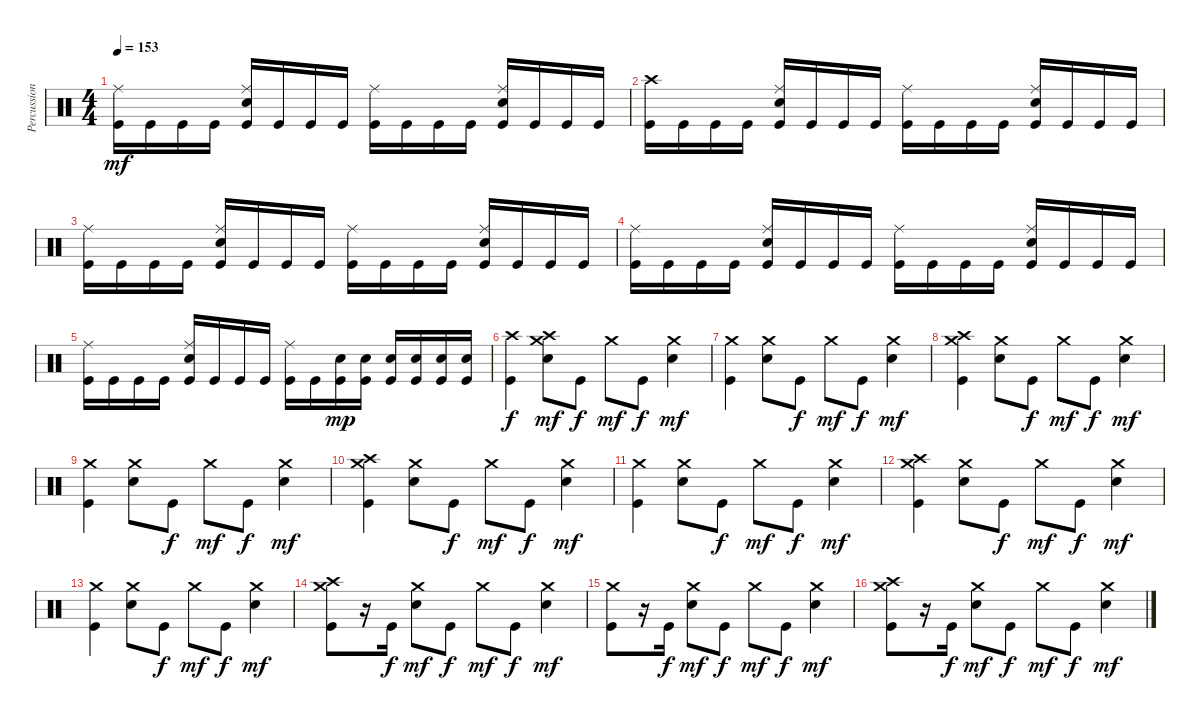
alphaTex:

\track ("Percussions" "Percussion") {instrument percussion}
\staff {score}
\articulation defaults
\ts (4 4)
\tempo 153
\clef neutral
\ks c
("Kick (hit)" "Ride (middle)").16{dy mf} "Kick (hit)".16 "Kick (hit)".16 "Kick (hit)".16 ("Kick (hit)" "Electric Snare (hit)" "Ride (middle)").16 "Kick (hit)".16 "Kick (hit)".16 "Kick (hit)".16 ("Kick (hit)" "Ride (middle)").16 "Kick (hit)".16 "Kick (hit)".16 "Kick (hit)".16 ("Kick (hit)" "Electric Snare (hit)" "Ride (middle)").16 "Kick (hit)".16 "Kick (hit)".16 "Kick (hit)".16 |
("Kick (hit)" "Crash high (hit)").16 "Kick (hit)".16 "Kick (hit)".16 "Kick (hit)".16 ("Kick (hit)" "Electric Snare (hit)" "Ride (middle)").16 "Kick (hit)".16 "Kick (hit)".16 "Kick (hit)".16 ("Kick (hit)" "Ride (middle)").16 "Kick (hit)".16 "Kick (hit)".16 "Kick (hit)".16 ("Kick (hit)" "Electric Snare (hit)" "Ride (middle)").16 "Kick (hit)".16 "Kick (hit)".16 "Kick (hit)".16 |
("Kick (hit)" "Ride (middle)").16 "Kick (hit)".16 "Kick (hit)".16 "Kick (hit)".16 ("Kick (hit)" "Electric Snare (hit)" "Ride (middle)").16 "Kick (hit)".16 "Kick (hit)".16 "Kick (hit)".16 ("Kick (hit)" "Ride (middle)").16 "Kick (hit)".16 "Kick (hit)".16 "Kick (hit)".16 ("Kick (hit)" "Electric Snare (hit)" "Ride (middle)").16 "Kick (hit)".16 "Kick (hit)".16 "Kick (hit)".16 |
("Kick (hit)" "Ride (middle)").16 "Kick (hit)".16 "Kick (hit)".16 "Kick (hit)".16 ("Kick (hit)" "Electric Snare (hit)" "Ride (middle)").16 "Kick (hit)".16 "Kick (hit)".16 "Kick (hit)".16 ("Kick (hit)" "Ride (middle)").16 "Kick (hit)".16 "Kick (hit)".16 "Kick (hit)".16 ("Kick (hit)" "Electric Snare (hit)" "Ride (middle)").16 "Kick (hit)".16 "Kick (hit)".16 "Kick (hit)".16 |
("Kick (hit)" "Ride (middle)").16 "Kick (hit)".16 "Kick (hit)".16 "Kick (hit)".16 ("Kick (hit)" "Electric Snare (hit)" "Ride (middle)").16 "Kick (hit)".16 "Kick (hit)".16 "Kick (hit)".16 ("Kick (hit)" "Ride (middle)").16 "Kick (hit)".16 ("Kick (hit)" "Electric Snare (hit)").16{dy mp} ("Kick (hit)" "Electric Snare (hit)").16 ("Kick (hit)" "Electric Snare (hit)").16 ("Kick (hit)" "Electric Snare (hit)").16 ("Kick (hit)" "Electric Snare (hit)").16 ("Kick (hit)" "Electric Snare (hit)").16 |
("Kick (hit)" "Crash high (hit)").4{dy f} ("Electric Snare (hit)" "Crash medium (hit)" "Crash high (hit)").8{dy mf} "Kick (hit)".8{dy f} "Crash medium (hit)".8{dy mf} "Kick (hit)".8{dy f} ("Electric Snare (hit)" "Crash medium (hit)").4{dy mf} |
("Kick (hit)" "Crash medium (hit)").4 ("Electric Snare (hit)" "Crash medium (hit)").8 "Kick (hit)".8{dy f} "Crash medium (hit)".8{dy mf} "Kick (hit)".8{dy f} ("Electric Snare (hit)" "Crash medium (hit)").4{dy mf} |
("Kick (hit)" "Crash medium (hit)" "Crash high (hit)").4 ("Electric Snare (hit)" "Crash medium (hit)").8 "Kick (hit)".8{dy f} "Crash medium (hit)".8{dy mf} "Kick (hit)".8{dy f} ("Electric Snare (hit)" "Crash medium (hit)").4{dy mf} |
("Kick (hit)" "Crash medium (hit)").4 ("Electric Snare (hit)" "Crash medium (hit)").8 "Kick (hit)".8{dy f} "Crash medium (hit)".8{dy mf} "Kick (hit)".8{dy f} ("Electric Snare (hit)" "Crash medium (hit)").4{dy mf} |
("Kick (hit)" "Crash medium (hit)" "Crash high (hit)").4 ("Electric Snare (hit)" "Crash medium (hit)").8 "Kick (hit)".8{dy f} "Crash medium (hit)".8{dy mf} "Kick (hit)".8{dy f} ("Electric Snare (hit)" "Crash medium (hit)").4{dy mf} |
("Kick (hit)" "Crash medium (hit)").4 ("Electric Snare (hit)" "Crash medium (hit)").8 "Kick (hit)".8{dy f} "Crash medium (hit)".8{dy mf} "Kick (hit)".8{dy f} ("Electric Snare (hit)" "Crash medium (hit)").4{dy mf} |
("Kick (hit)" "Crash medium (hit)" "Crash high (hit)").4 ("Electric Snare (hit)" "Crash medium (hit)").8 "Kick (hit)".8{dy f} "Crash medium (hit)".8{dy mf} "Kick (hit)".8{dy f} ("Electric Snare (hit)" "Crash medium (hit)").4{dy mf} |
("Kick (hit)" "Crash medium (hit)").4 ("Electric Snare (hit)" "Crash medium (hit)").8 "Kick (hit)".8{dy f} "Crash medium (hit)".8{dy mf} "Kick (hit)".8{dy f} ("Electric Snare (hit)" "Crash medium (hit)").4{dy mf} |
("Kick (hit)" "Crash medium (hit)" "Crash high (hit)").8 r.16 "Kick (hit)".16{dy f} ("Electric Snare (hit)" "Crash medium (hit)").8{dy mf} "Kick (hit)".8{dy f} "Crash medium (hit)".8{dy mf} "Kick (hit)".8{dy f} ("Electric Snare (hit)" "Crash medium (hit)").4{dy mf} |
("Kick (hit)" "Crash medium (hit)").8 r.16 "Kick (hit)".16{dy f} ("Electric Snare (hit)" "Crash medium (hit)").8{dy mf} "Kick (hit)".8{dy f} "Crash medium (hit)".8{dy mf} "Kick (hit)".8{dy f} ("Electric Snare (hit)" "Crash medium (hit)").4{dy mf} |
("Kick (hit)" "Crash medium (hit)" "Crash high (hit)").8 r.16 "Kick (hit)".16{dy f} ("Electric Snare (hit)" "Crash medium (hit)").8{dy mf} "Kick (hit)".8{dy f} "Crash medium (hit)".8{dy mf} "Kick (hit)".8{dy f} ("Electric Snare (hit)" "Crash medium (hit)").4{dy mf}
